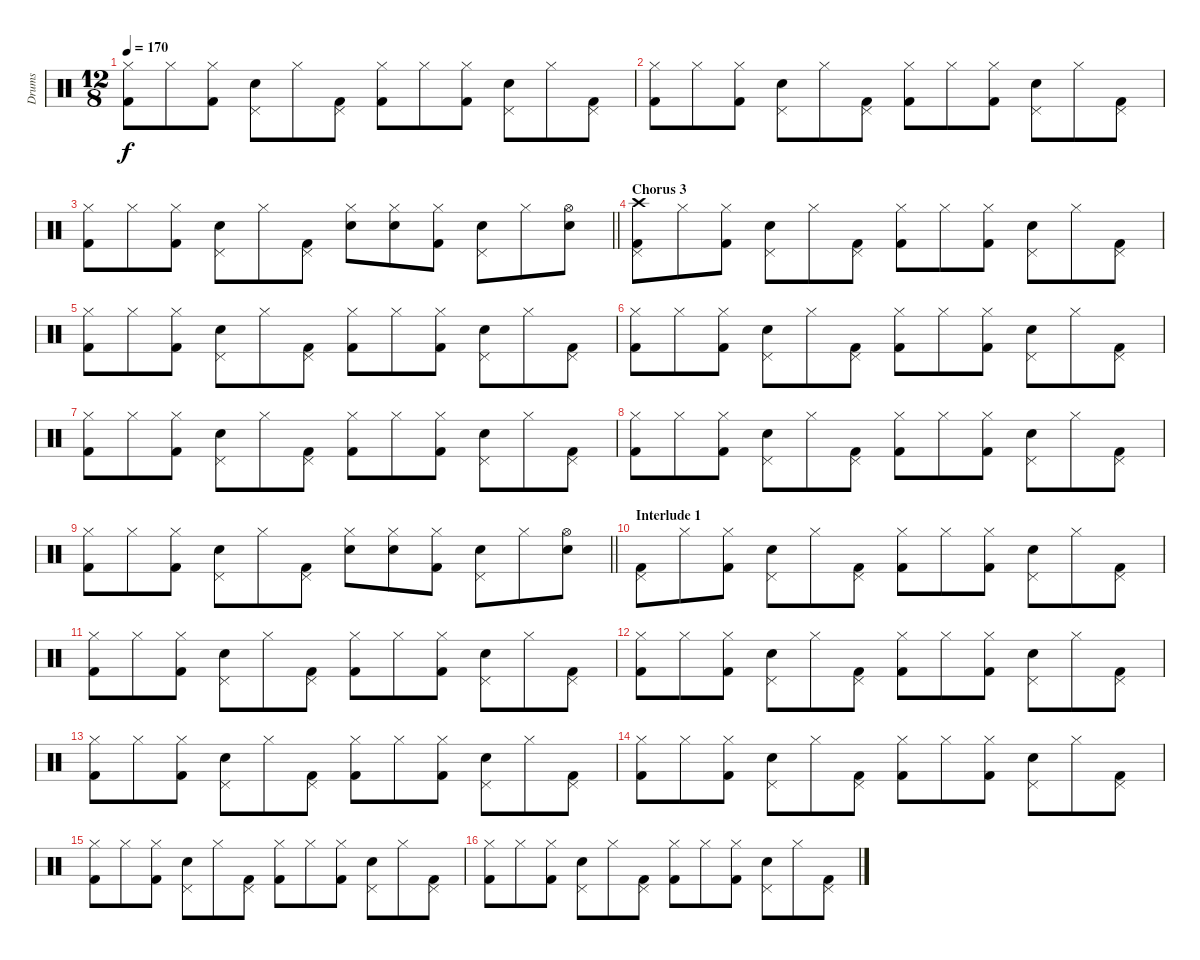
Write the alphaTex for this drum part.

\track ("Drums" "Drums") {instrument percussion}
\staff {score}
\articulation defaults
\ts (12 8)
\tempo 170
\clef neutral
\ks c
("Kick (hit) 2" "Hi-Hat (closed)").8{dy f} "Hi-Hat (closed)".8 ("Kick (hit) 2" "Hi-Hat (closed)").8 ("Snare (hit) 2" "Pedal Hi-Hat (hit)").8 "Hi-Hat (closed)".8 ("Kick (hit) 2" "Pedal Hi-Hat (hit)").8 ("Kick (hit) 2" "Hi-Hat (closed)").8 "Hi-Hat (closed)".8 ("Kick (hit) 2" "Hi-Hat (closed)").8 ("Snare (hit) 2" "Pedal Hi-Hat (hit)").8 "Hi-Hat (closed)".8 ("Kick (hit) 2" "Pedal Hi-Hat (hit)").8 |
("Kick (hit) 2" "Hi-Hat (closed)").8 "Hi-Hat (closed)".8 ("Kick (hit) 2" "Hi-Hat (closed)").8 ("Snare (hit) 2" "Pedal Hi-Hat (hit)").8 "Hi-Hat (closed)".8 ("Kick (hit) 2" "Pedal Hi-Hat (hit)").8 ("Kick (hit) 2" "Hi-Hat (closed)").8 "Hi-Hat (closed)".8 ("Kick (hit) 2" "Hi-Hat (closed)").8 ("Snare (hit) 2" "Pedal Hi-Hat (hit)").8 "Hi-Hat (closed)".8 ("Kick (hit) 2" "Pedal Hi-Hat (hit)").8 |
\barLineRight lightlight
("Kick (hit) 2" "Hi-Hat (closed)").8 "Hi-Hat (closed)".8 ("Kick (hit) 2" "Hi-Hat (closed)").8 ("Snare (hit) 2" "Pedal Hi-Hat (hit)").8 "Hi-Hat (closed)".8 ("Kick (hit) 2" "Pedal Hi-Hat (hit)").8 ("Snare (hit) 2" "Hi-Hat (closed)").8 ("Snare (hit) 2" "Hi-Hat (closed)").8 ("Kick (hit) 2" "Hi-Hat (closed)").8 ("Snare (hit) 2" "Pedal Hi-Hat (hit)").8 "Hi-Hat (closed)".8 ("Snare (hit) 2" "Hi-Hat (open)").8 |
\section ("" "Chorus 3")
("Kick (hit) 2" "Crash high (hit)" "Pedal Hi-Hat (hit)").8 "Hi-Hat (closed)".8 ("Kick (hit) 2" "Hi-Hat (closed)").8 ("Snare (hit) 2" "Pedal Hi-Hat (hit)").8 "Hi-Hat (closed)".8 ("Kick (hit) 2" "Pedal Hi-Hat (hit)").8 ("Kick (hit) 2" "Hi-Hat (closed)").8 "Hi-Hat (closed)".8 ("Kick (hit) 2" "Hi-Hat (closed)").8 ("Snare (hit) 2" "Pedal Hi-Hat (hit)").8 "Hi-Hat (closed)".8 ("Kick (hit) 2" "Pedal Hi-Hat (hit)").8 |
("Kick (hit) 2" "Hi-Hat (closed)").8 "Hi-Hat (closed)".8 ("Kick (hit) 2" "Hi-Hat (closed)").8 ("Snare (hit) 2" "Pedal Hi-Hat (hit)").8 "Hi-Hat (closed)".8 ("Kick (hit) 2" "Pedal Hi-Hat (hit)").8 ("Kick (hit) 2" "Hi-Hat (closed)").8 "Hi-Hat (closed)".8 ("Kick (hit) 2" "Hi-Hat (closed)").8 ("Snare (hit) 2" "Pedal Hi-Hat (hit)").8 "Hi-Hat (closed)".8 ("Kick (hit) 2" "Pedal Hi-Hat (hit)").8 |
("Kick (hit) 2" "Hi-Hat (closed)").8 "Hi-Hat (closed)".8 ("Kick (hit) 2" "Hi-Hat (closed)").8 ("Snare (hit) 2" "Pedal Hi-Hat (hit)").8 "Hi-Hat (closed)".8 ("Kick (hit) 2" "Pedal Hi-Hat (hit)").8 ("Kick (hit) 2" "Hi-Hat (closed)").8 "Hi-Hat (closed)".8 ("Kick (hit) 2" "Hi-Hat (closed)").8 ("Snare (hit) 2" "Pedal Hi-Hat (hit)").8 "Hi-Hat (closed)".8 ("Kick (hit) 2" "Pedal Hi-Hat (hit)").8 |
("Kick (hit) 2" "Hi-Hat (closed)").8 "Hi-Hat (closed)".8 ("Kick (hit) 2" "Hi-Hat (closed)").8 ("Snare (hit) 2" "Pedal Hi-Hat (hit)").8 "Hi-Hat (closed)".8 ("Kick (hit) 2" "Pedal Hi-Hat (hit)").8 ("Kick (hit) 2" "Hi-Hat (closed)").8 "Hi-Hat (closed)".8 ("Kick (hit) 2" "Hi-Hat (closed)").8 ("Snare (hit) 2" "Pedal Hi-Hat (hit)").8 "Hi-Hat (closed)".8 ("Kick (hit) 2" "Pedal Hi-Hat (hit)").8 |
("Kick (hit) 2" "Hi-Hat (closed)").8 "Hi-Hat (closed)".8 ("Kick (hit) 2" "Hi-Hat (closed)").8 ("Snare (hit) 2" "Pedal Hi-Hat (hit)").8 "Hi-Hat (closed)".8 ("Kick (hit) 2" "Pedal Hi-Hat (hit)").8 ("Kick (hit) 2" "Hi-Hat (closed)").8 "Hi-Hat (closed)".8 ("Kick (hit) 2" "Hi-Hat (closed)").8 ("Snare (hit) 2" "Pedal Hi-Hat (hit)").8 "Hi-Hat (closed)".8 ("Kick (hit) 2" "Pedal Hi-Hat (hit)").8 |
\barLineRight lightlight
("Kick (hit) 2" "Hi-Hat (closed)").8 "Hi-Hat (closed)".8 ("Kick (hit) 2" "Hi-Hat (closed)").8 ("Snare (hit) 2" "Pedal Hi-Hat (hit)").8 "Hi-Hat (closed)".8 ("Kick (hit) 2" "Pedal Hi-Hat (hit)").8 ("Snare (hit) 2" "Hi-Hat (closed)").8 ("Snare (hit) 2" "Hi-Hat (closed)").8 ("Kick (hit) 2" "Hi-Hat (closed)").8 ("Snare (hit) 2" "Pedal Hi-Hat (hit)").8 "Hi-Hat (closed)".8 ("Snare (hit) 2" "Hi-Hat (open)").8 |
\section ("" "Interlude 1")
("Kick (hit) 2" "Pedal Hi-Hat (hit)").8 "Hi-Hat (closed)".8 ("Kick (hit) 2" "Hi-Hat (closed)").8 ("Snare (hit) 2" "Pedal Hi-Hat (hit)").8 "Hi-Hat (closed)".8 ("Kick (hit) 2" "Pedal Hi-Hat (hit)").8 ("Kick (hit) 2" "Hi-Hat (closed)").8 "Hi-Hat (closed)".8 ("Kick (hit) 2" "Hi-Hat (closed)").8 ("Snare (hit) 2" "Pedal Hi-Hat (hit)").8 "Hi-Hat (closed)".8 ("Kick (hit) 2" "Pedal Hi-Hat (hit)").8 |
("Kick (hit) 2" "Hi-Hat (closed)").8 "Hi-Hat (closed)".8 ("Kick (hit) 2" "Hi-Hat (closed)").8 ("Snare (hit) 2" "Pedal Hi-Hat (hit)").8 "Hi-Hat (closed)".8 ("Kick (hit) 2" "Pedal Hi-Hat (hit)").8 ("Kick (hit) 2" "Hi-Hat (closed)").8 "Hi-Hat (closed)".8 ("Kick (hit) 2" "Hi-Hat (closed)").8 ("Snare (hit) 2" "Pedal Hi-Hat (hit)").8 "Hi-Hat (closed)".8 ("Kick (hit) 2" "Pedal Hi-Hat (hit)").8 |
("Kick (hit) 2" "Hi-Hat (closed)").8 "Hi-Hat (closed)".8 ("Kick (hit) 2" "Hi-Hat (closed)").8 ("Snare (hit) 2" "Pedal Hi-Hat (hit)").8 "Hi-Hat (closed)".8 ("Kick (hit) 2" "Pedal Hi-Hat (hit)").8 ("Kick (hit) 2" "Hi-Hat (closed)").8 "Hi-Hat (closed)".8 ("Kick (hit) 2" "Hi-Hat (closed)").8 ("Snare (hit) 2" "Pedal Hi-Hat (hit)").8 "Hi-Hat (closed)".8 ("Kick (hit) 2" "Pedal Hi-Hat (hit)").8 |
("Kick (hit) 2" "Hi-Hat (closed)").8 "Hi-Hat (closed)".8 ("Kick (hit) 2" "Hi-Hat (closed)").8 ("Snare (hit) 2" "Pedal Hi-Hat (hit)").8 "Hi-Hat (closed)".8 ("Kick (hit) 2" "Pedal Hi-Hat (hit)").8 ("Kick (hit) 2" "Hi-Hat (closed)").8 "Hi-Hat (closed)".8 ("Kick (hit) 2" "Hi-Hat (closed)").8 ("Snare (hit) 2" "Pedal Hi-Hat (hit)").8 "Hi-Hat (closed)".8 ("Kick (hit) 2" "Pedal Hi-Hat (hit)").8 |
("Kick (hit) 2" "Hi-Hat (closed)").8 "Hi-Hat (closed)".8 ("Kick (hit) 2" "Hi-Hat (closed)").8 ("Snare (hit) 2" "Pedal Hi-Hat (hit)").8 "Hi-Hat (closed)".8 ("Kick (hit) 2" "Pedal Hi-Hat (hit)").8 ("Kick (hit) 2" "Hi-Hat (closed)").8 "Hi-Hat (closed)".8 ("Kick (hit) 2" "Hi-Hat (closed)").8 ("Snare (hit) 2" "Pedal Hi-Hat (hit)").8 "Hi-Hat (closed)".8 ("Kick (hit) 2" "Pedal Hi-Hat (hit)").8 |
("Kick (hit) 2" "Hi-Hat (closed)").8 "Hi-Hat (closed)".8 ("Kick (hit) 2" "Hi-Hat (closed)").8 ("Snare (hit) 2" "Pedal Hi-Hat (hit)").8 "Hi-Hat (closed)".8 ("Kick (hit) 2" "Pedal Hi-Hat (hit)").8 ("Kick (hit) 2" "Hi-Hat (closed)").8 "Hi-Hat (closed)".8 ("Kick (hit) 2" "Hi-Hat (closed)").8 ("Snare (hit) 2" "Pedal Hi-Hat (hit)").8 "Hi-Hat (closed)".8 ("Kick (hit) 2" "Pedal Hi-Hat (hit)").8 |
("Kick (hit) 2" "Hi-Hat (closed)").8 "Hi-Hat (closed)".8 ("Kick (hit) 2" "Hi-Hat (closed)").8 ("Snare (hit) 2" "Pedal Hi-Hat (hit)").8 "Hi-Hat (closed)".8 ("Kick (hit) 2" "Pedal Hi-Hat (hit)").8 ("Kick (hit) 2" "Hi-Hat (closed)").8 "Hi-Hat (closed)".8 ("Kick (hit) 2" "Hi-Hat (closed)").8 ("Snare (hit) 2" "Pedal Hi-Hat (hit)").8 "Hi-Hat (closed)".8 ("Kick (hit) 2" "Pedal Hi-Hat (hit)").8
